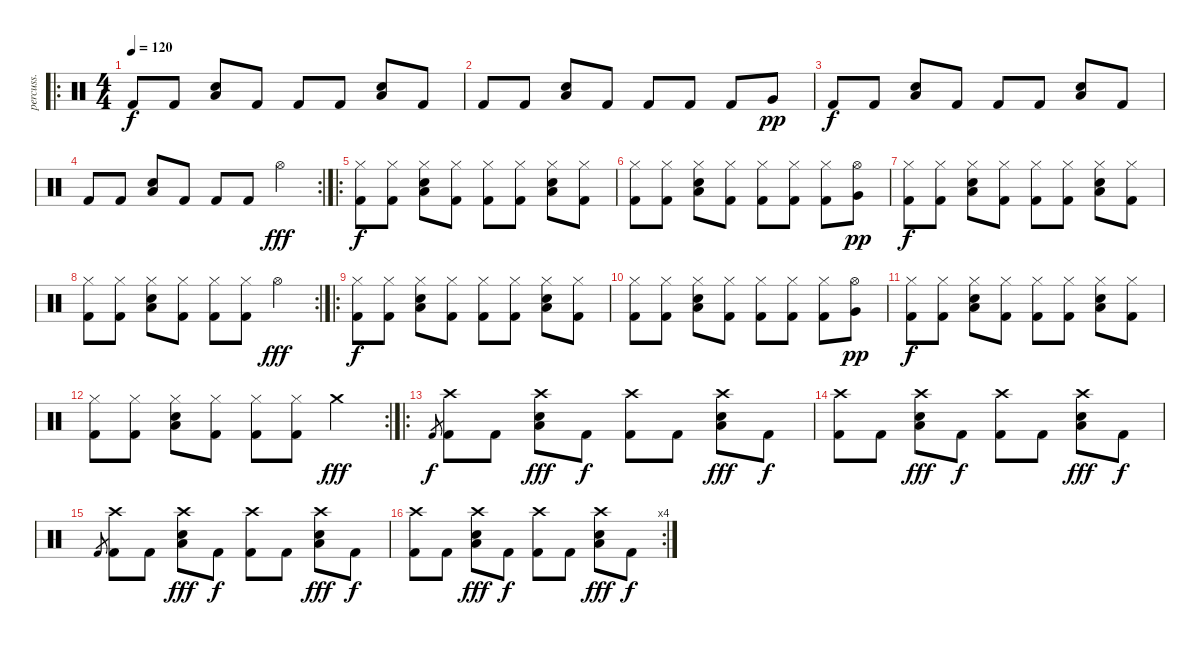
\track ("percuss." "percuss.") {instrument percussion}
\staff {score}
\articulation defaults
\ro
\ts (4 4)
\tempo 120
\clef neutral
\ks c "Kick (hit) 2".8{dy f} "Kick (hit) 2".8
("Low Floor Tom (hit)" "Electric Snare (hit)").8 "Kick (hit) 2".8 "Kick (hit) 2".8 "Kick (hit) 2".8 ("Low Floor Tom (hit)" "Electric Snare (hit)").8 "Kick (hit) 2".8 |
"Kick (hit) 2".8 "Kick (hit) 2".8 ("Low Floor Tom (hit)" "Electric Snare (hit)").8 "Kick (hit) 2".8 "Kick (hit) 2".8 "Kick (hit) 2".8 "Kick (hit) 2".8 "Very Low Tom (hit)".8{dy pp} |
"Kick (hit) 2".8{dy f} "Kick (hit) 2".8 ("Low Floor Tom (hit)" "Electric Snare (hit)").8 "Kick (hit) 2".8 "Kick (hit) 2".8 "Kick (hit) 2".8 ("Low Floor Tom (hit)" "Electric Snare (hit)").8 "Kick (hit) 2".8 |
\rc 2 "Kick (hit) 2".8 "Kick (hit) 2".8
("Low Floor Tom (hit)" "Electric Snare (hit)").8 "Kick (hit) 2".8 "Kick (hit) 2".8 "Kick (hit) 2".8 "Hi-Hat (open)".4{dy fff} |
\ro
("Hi-Hat (closed)" "Kick (hit) 2").8{dy f} ("Hi-Hat (closed)" "Kick (hit) 2").8 ("Hi-Hat (closed)" "Low Floor Tom (hit)" "Electric Snare (hit)").8 ("Hi-Hat (closed)" "Kick (hit) 2").8 ("Hi-Hat (closed)" "Kick (hit) 2").8 ("Hi-Hat (closed)" "Kick (hit) 2").8 ("Hi-Hat (closed)" "Low Floor Tom (hit)" "Electric Snare (hit)").8 ("Hi-Hat (closed)" "Kick (hit) 2").8 |
("Hi-Hat (closed)" "Kick (hit) 2").8 ("Hi-Hat (closed)" "Kick (hit) 2").8 ("Hi-Hat (closed)" "Low Floor Tom (hit)" "Electric Snare (hit)").8 ("Hi-Hat (closed)" "Kick (hit) 2").8 ("Hi-Hat (closed)" "Kick (hit) 2").8 ("Hi-Hat (closed)" "Kick (hit) 2").8 ("Hi-Hat (closed)" "Kick (hit) 2").8 ("Hi-Hat (open)" "Very Low Tom (hit)").8{dy pp} |
("Hi-Hat (closed)" "Kick (hit) 2").8{dy f} ("Hi-Hat (closed)" "Kick (hit) 2").8 ("Hi-Hat (closed)" "Low Floor Tom (hit)" "Electric Snare (hit)").8 ("Hi-Hat (closed)" "Kick (hit) 2").8 ("Hi-Hat (closed)" "Kick (hit) 2").8 ("Hi-Hat (closed)" "Kick (hit) 2").8 ("Hi-Hat (closed)" "Low Floor Tom (hit)" "Electric Snare (hit)").8 ("Hi-Hat (closed)" "Kick (hit) 2").8 |
\rc 2
("Hi-Hat (closed)" "Kick (hit) 2").8 ("Hi-Hat (closed)" "Kick (hit) 2").8 ("Hi-Hat (closed)" "Low Floor Tom (hit)" "Electric Snare (hit)").8 ("Hi-Hat (closed)" "Kick (hit) 2").8 ("Hi-Hat (closed)" "Kick (hit) 2").8 ("Hi-Hat (closed)" "Kick (hit) 2").8 "Hi-Hat (open)".4{dy fff} |
\ro
("Hi-Hat (closed)" "Kick (hit) 2").8{dy f} ("Hi-Hat (closed)" "Kick (hit) 2").8 ("Hi-Hat (closed)" "Low Floor Tom (hit)" "Electric Snare (hit)").8 ("Hi-Hat (closed)" "Kick (hit) 2").8 ("Hi-Hat (closed)" "Kick (hit) 2").8 ("Hi-Hat (closed)" "Kick (hit) 2").8 ("Hi-Hat (closed)" "Low Floor Tom (hit)" "Electric Snare (hit)").8 ("Hi-Hat (closed)" "Kick (hit) 2").8 |
("Hi-Hat (closed)" "Kick (hit) 2").8 ("Hi-Hat (closed)" "Kick (hit) 2").8 ("Hi-Hat (closed)" "Low Floor Tom (hit)" "Electric Snare (hit)").8 ("Hi-Hat (closed)" "Kick (hit) 2").8 ("Hi-Hat (closed)" "Kick (hit) 2").8 ("Hi-Hat (closed)" "Kick (hit) 2").8 ("Hi-Hat (closed)" "Kick (hit) 2").8 ("Hi-Hat (open)" "Very Low Tom (hit)").8{dy pp} |
("Hi-Hat (closed)" "Kick (hit) 2").8{dy f} ("Hi-Hat (closed)" "Kick (hit) 2").8 ("Hi-Hat (closed)" "Low Floor Tom (hit)" "Electric Snare (hit)").8 ("Hi-Hat (closed)" "Kick (hit) 2").8 ("Hi-Hat (closed)" "Kick (hit) 2").8 ("Hi-Hat (closed)" "Kick (hit) 2").8 ("Hi-Hat (closed)" "Low Floor Tom (hit)" "Electric Snare (hit)").8 ("Hi-Hat (closed)" "Kick (hit) 2").8 |
\rc 2
("Hi-Hat (closed)" "Kick (hit) 2").8 ("Hi-Hat (closed)" "Kick (hit) 2").8 ("Hi-Hat (closed)" "Low Floor Tom (hit)" "Electric Snare (hit)").8 ("Hi-Hat (closed)" "Kick (hit) 2").8 ("Hi-Hat (closed)" "Kick (hit) 2").8 ("Hi-Hat (closed)" "Kick (hit) 2").8 "Crash medium (hit)".4{dy fff} |
\ro "Kick (hit) 2".8{gr dy f}
("Crash high (hit)" "Kick (hit) 2").8 "Kick (hit) 2".8 ("Crash high (hit)" "Low Floor Tom (hit)" "Electric Snare (hit)").8{dy fff} "Kick (hit) 2".8{dy f} ("Crash high (hit)" "Kick (hit) 2").8 "Kick (hit) 2".8 ("Crash high (hit)" "Low Floor Tom (hit)" "Electric Snare (hit)").8{dy fff} "Kick (hit) 2".8{dy f} |
("Crash high (hit)" "Kick (hit) 2").8 "Kick (hit) 2".8 ("Crash high (hit)" "Low Floor Tom (hit)" "Electric Snare (hit)").8{dy fff} "Kick (hit) 2".8{dy f} ("Crash high (hit)" "Kick (hit) 2").8 "Kick (hit) 2".8 ("Crash high (hit)" "Low Floor Tom (hit)" "Electric Snare (hit)").8{dy fff} "Kick (hit) 2".8{dy f} |
"Kick (hit) 2".8{gr} ("Crash high (hit)" "Kick (hit) 2").8 "Kick (hit) 2".8 ("Crash high (hit)" "Low Floor Tom (hit)" "Electric Snare (hit)").8{dy fff} "Kick (hit) 2".8{dy f} ("Crash high (hit)" "Kick (hit) 2").8 "Kick (hit) 2".8 ("Crash high (hit)" "Low Floor Tom (hit)" "Electric Snare (hit)").8{dy fff} "Kick (hit) 2".8{dy f} |
\rc 4
("Crash high (hit)" "Kick (hit) 2").8 "Kick (hit) 2".8 ("Crash high (hit)" "Low Floor Tom (hit)" "Electric Snare (hit)").8{dy fff} "Kick (hit) 2".8{dy f} ("Crash high (hit)" "Kick (hit) 2").8 "Kick (hit) 2".8 ("Crash high (hit)" "Low Floor Tom (hit)" "Electric Snare (hit)").8{dy fff} "Kick (hit) 2".8{dy f}
